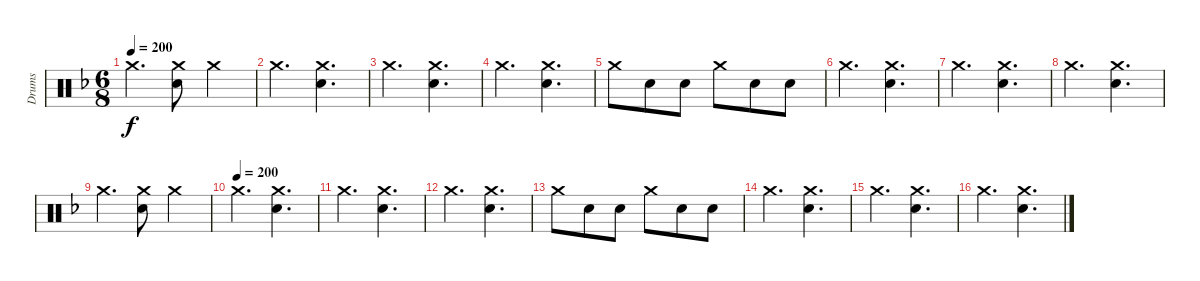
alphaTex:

\track ("Drums" "Drums") {instrument percussion}
\staff {score}
\articulation defaults
\ts (6 8)
\tempo 200
\clef neutral
\ks dminor "Crash medium (hit)".4{d dy f}
("Crash medium (hit)" "Snare (hit) 2").8 "Crash medium (hit)".4 |
"Crash medium (hit)".4{d} ("Crash medium (hit)" "Snare (hit) 2").4{d} |
"Crash medium (hit)".4{d} ("Crash medium (hit)" "Snare (hit) 2").4{d} |
"Crash medium (hit)".4{d} ("Crash medium (hit)" "Snare (hit) 2").4{d} |
"Crash medium (hit)".8 "Snare (hit) 2".8 "Snare (hit) 2".8 "Crash medium (hit)".8 "Snare (hit) 2".8 "Snare (hit) 2".8 |
"Crash medium (hit)".4{d} ("Crash medium (hit)" "Snare (hit) 2").4{d} |
"Crash medium (hit)".4{d} ("Crash medium (hit)" "Snare (hit) 2").4{d} |
"Crash medium (hit)".4{d} ("Crash medium (hit)" "Snare (hit) 2").4{d} |
"Crash medium (hit)".4{d} ("Crash medium (hit)" "Snare (hit) 2").8 "Crash medium (hit)".4 |
\tempo (200)
"Crash medium (hit)".4{d} ("Crash medium (hit)" "Snare (hit) 2").4{d} |
"Crash medium (hit)".4{d} ("Crash medium (hit)" "Snare (hit) 2").4{d} |
"Crash medium (hit)".4{d} ("Crash medium (hit)" "Snare (hit) 2").4{d} |
"Crash medium (hit)".8 "Snare (hit) 2".8 "Snare (hit) 2".8 "Crash medium (hit)".8 "Snare (hit) 2".8 "Snare (hit) 2".8 |
"Crash medium (hit)".4{d} ("Crash medium (hit)" "Snare (hit) 2").4{d} |
"Crash medium (hit)".4{d} ("Crash medium (hit)" "Snare (hit) 2").4{d} |
"Crash medium (hit)".4{d} ("Crash medium (hit)" "Snare (hit) 2").4{d}
